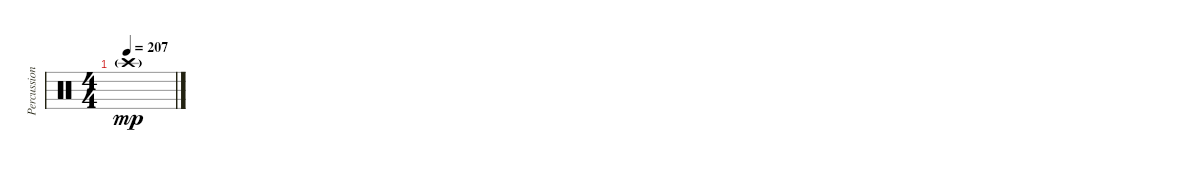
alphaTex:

\track ("Percussion" "Percussion") {instrument percussion}
\staff {score}
\articulation defaults
\ts (4 4)
\tempo 207
\clef neutral
\ks c "Crash high (hit)"{g}.1{dy mp}
